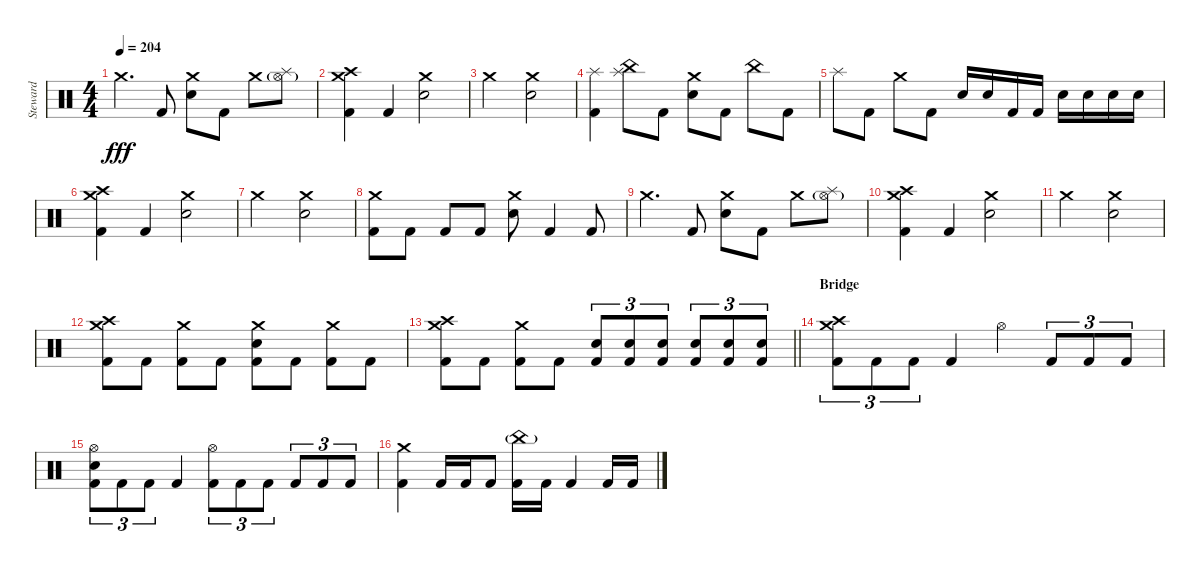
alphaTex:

\track ("Steward" "Steward") {instrument percussion}
\staff {score}
\articulation defaults
\ts (4 4)
\tempo 204
\clef neutral
\ks c "Crash medium (hit)".4{d dy fff} "Kick (hit) 2".8
("Crash medium (hit)" "Electric Snare (hit)").8 "Kick (hit) 2".8 "Crash medium (hit)".8 ("Splash (hit)" "Hi-Hat (open)"{g}).8 |
("Crash medium (hit)" "Crash high (hit)" "Kick (hit) 2").4 "Kick (hit) 2".4 ("Crash medium (hit)" "Electric Snare (hit)").2 |
"Crash medium (hit)".2 ("Crash medium (hit)" "Electric Snare (hit)").2 |
("Splash (hit)" "Kick (hit) 2").4 ("China (hit)" "Splash (hit)").8 "Kick (hit) 2".8 ("Crash medium (hit)" "Electric Snare (hit)").8 "Kick (hit) 2".8 "China (hit)".8 "Kick (hit) 2".8 |
"Splash (hit)".8 "Kick (hit) 2".8 "Crash medium (hit)".8 "Kick (hit) 2".8 "Electric Snare (hit)".16 "Electric Snare (hit)".16 "Kick (hit) 2".16 "Kick (hit) 2".16 "Electric Snare (hit)".16 "Electric Snare (hit)".16 "Electric Snare (hit)".16 "Electric Snare (hit)".16 |
("Crash medium (hit)" "Crash high (hit)" "Kick (hit) 2").4 "Kick (hit) 2".4 ("Crash medium (hit)" "Electric Snare (hit)").2 |
"Crash medium (hit)".2 ("Crash medium (hit)" "Electric Snare (hit)").2 |
("Crash medium (hit)" "Kick (hit) 2").8 "Kick (hit) 2".8 "Kick (hit) 2".8 "Kick (hit) 2".8 ("Crash medium (hit)" "Electric Snare (hit)").8 "Kick (hit) 2".4 "Kick (hit) 2".8 |
"Crash medium (hit)".4{d} "Kick (hit) 2".8 ("Crash medium (hit)" "Electric Snare (hit)").8 "Kick (hit) 2".8 "Crash medium (hit)".8 ("Splash (hit)" "Hi-Hat (open)"{g}).8 |
("Crash medium (hit)" "Crash high (hit)" "Kick (hit) 2").4 "Kick (hit) 2".4 ("Crash medium (hit)" "Electric Snare (hit)").2 |
"Crash medium (hit)".2 ("Crash medium (hit)" "Electric Snare (hit)").2 |
("Crash medium (hit)" "Crash high (hit)" "Kick (hit) 2").8 "Kick (hit) 2".8 ("Crash medium (hit)" "Kick (hit) 2").8 "Kick (hit) 2".8 ("Crash medium (hit)" "Electric Snare (hit)" "Kick (hit) 2").8 "Kick (hit) 2".8 ("Crash medium (hit)" "Kick (hit) 2").8 "Kick (hit) 2".8 |
\barLineRight lightlight
("Crash medium (hit)" "Crash high (hit)" "Kick (hit) 2").8 "Kick (hit) 2".8 ("Crash medium (hit)" "Kick (hit) 2").8 "Kick (hit) 2".8 ("Electric Snare (hit)" "Kick (hit) 2").8{tu (3 2)} ("Electric Snare (hit)" "Kick (hit) 2").8{tu (3 2)} ("Electric Snare (hit)" "Kick (hit) 2").8{tu (3 2)} ("Electric Snare (hit)" "Kick (hit) 2").8{tu (3 2)} ("Electric Snare (hit)" "Kick (hit) 2").8{tu (3 2)} ("Electric Snare (hit)" "Kick (hit) 2").8{tu (3 2)} |
\section ("" "Bridge")
("Crash medium (hit)" "Crash high (hit)" "Kick (hit) 2").8{tu (3 2)} "Kick (hit) 2".8{tu (3 2)} "Kick (hit) 2".8{tu (3 2)} "Kick (hit) 2".4 "Hi-Hat (open)".4 "Kick (hit) 2".8{tu (3 2)} "Kick (hit) 2".8{tu (3 2)} "Kick (hit) 2".8{tu (3 2)} |
("Hi-Hat (open)" "Electric Snare (hit)" "Kick (hit) 2").8{tu (3 2)} "Kick (hit) 2".8{tu (3 2)} "Kick (hit) 2".8{tu (3 2)} "Kick (hit) 2".4 ("Hi-Hat (open)" "Kick (hit) 2").8{tu (3 2)} "Kick (hit) 2".8{tu (3 2)} "Kick (hit) 2".8{tu (3 2)} "Kick (hit) 2".8{tu (3 2)} "Kick (hit) 2".8{tu (3 2)} "Kick (hit) 2".8{tu (3 2)} |
("Crash medium (hit)" "Kick (hit) 2").4 "Kick (hit) 2".16 "Kick (hit) 2".16 "Kick (hit) 2".8 ("China (hit)"{g} "Kick (hit) 2").16 "Kick (hit) 2".16 "Kick (hit) 2".4 "Kick (hit) 2".16 "Kick (hit) 2".16
